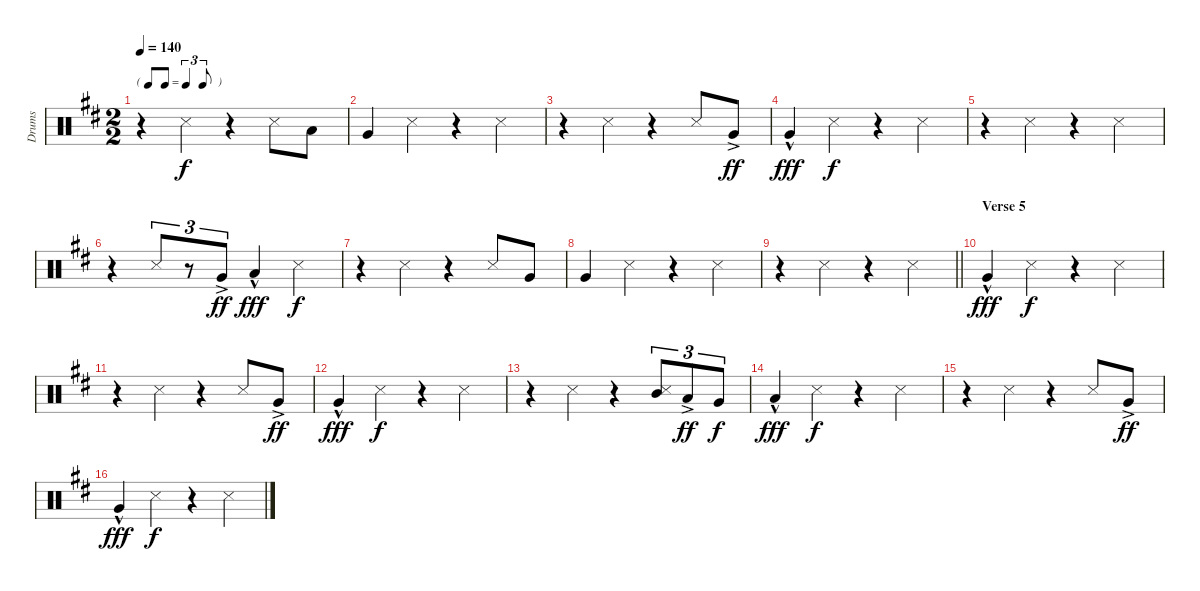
\track ("Drums" "Drums") {instrument percussion}
\staff {score}
\articulation defaults
\ts (2 2)
\tf triplet8th
\tempo 140
\clef neutral
\ks bminor
r.4{dy f} "Metronome (hit)".4 r.4 "Metronome (hit)".8 "Low Tom (hit)".8 |
"Very Low Tom (hit)".4 "Metronome (hit)".4 r.4 "Metronome (hit)".4 |
r.4 "Metronome (hit)".4 r.4 "Metronome (hit)".8 "Very Low Tom (hit)"{ac}.8{dy ff} |
"Very Low Tom (hit)"{hac}.4{dy fff} "Metronome (hit)".4{dy f} r.4 "Metronome (hit)".4 |
r.4 "Metronome (hit)".4 r.4 "Metronome (hit)".4 |
r.4 "Metronome (hit)".8{tu (3 2)} r.8{tu (3 2)} "Very Low Tom (hit)"{ac}.8{tu (3 2) dy ff} "Low Floor Tom (hit)"{hac}.4{dy fff} "Metronome (hit)".4{dy f} |
r.4 "Metronome (hit)".4 r.4 "Metronome (hit)".8 "Very Low Tom (hit)".8 |
"Very Low Tom (hit)".4 "Metronome (hit)".4 r.4 "Metronome (hit)".4 |
\barLineRight lightlight
r.4 "Metronome (hit)".4 r.4 "Metronome (hit)".4 |
\section ("" "Verse 5")
"Very Low Tom (hit)"{hac}.4{dy fff} "Metronome (hit)".4{dy f} r.4 "Metronome (hit)".4 |
r.4 "Metronome (hit)".4 r.4 "Metronome (hit)".8 "Very Low Tom (hit)"{ac}.8{dy ff} |
"Very Low Tom (hit)"{hac}.4{dy fff} "Metronome (hit)".4{dy f} r.4 "Metronome (hit)".4 |
r.4 "Metronome (hit)".4 r.4 ("Metronome (hit)" "Mid Tom (hit)").8{tu (3 2)} "Low Tom (hit)"{ac}.8{tu (3 2) dy ff} "Very Low Tom (hit)".8{tu (3 2) dy f} |
"Low Floor Tom (hit)"{hac}.4{dy fff} "Metronome (hit)".4{dy f} r.4 "Metronome (hit)".4 |
r.4 "Metronome (hit)".4 r.4 "Metronome (hit)".8 "Very Low Tom (hit)"{ac}.8{dy ff} |
"Very Low Tom (hit)"{hac}.4{dy fff} "Metronome (hit)".4{dy f} r.4 "Metronome (hit)".4
